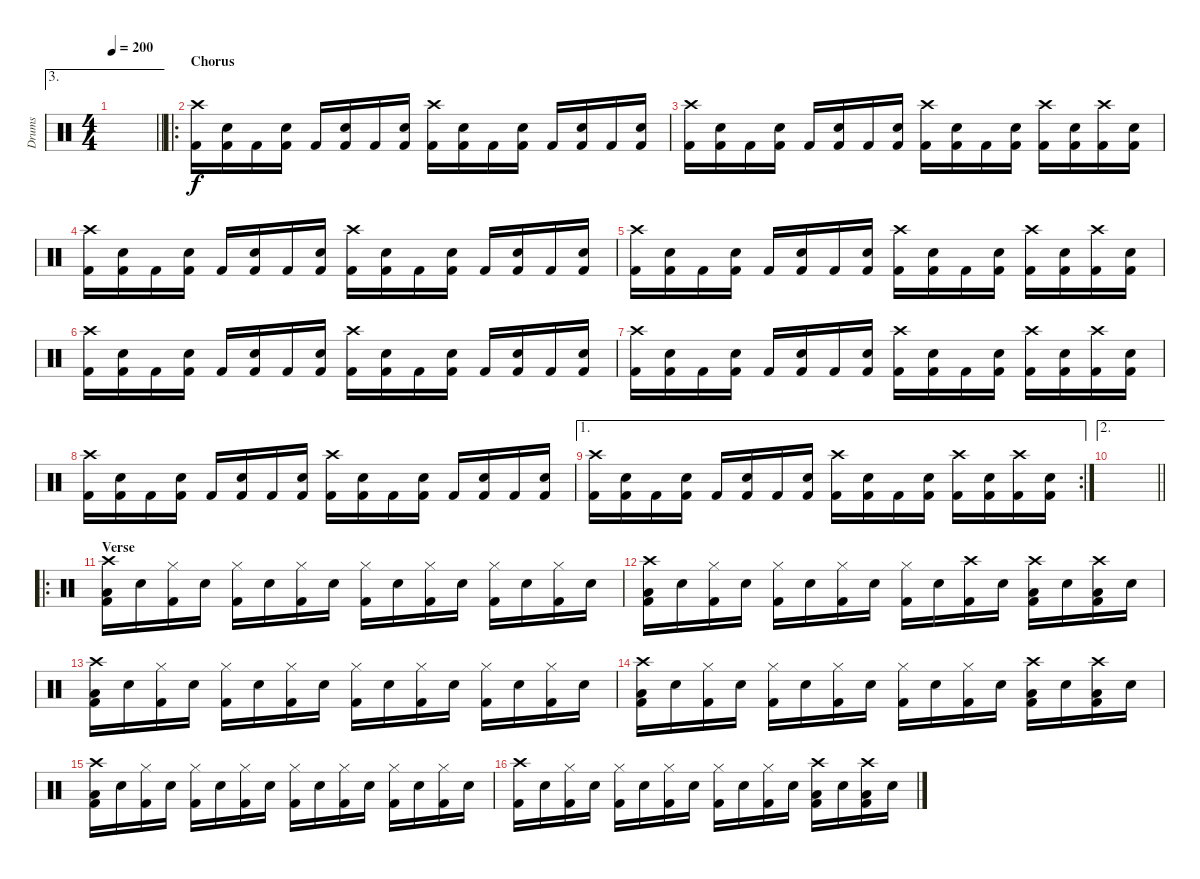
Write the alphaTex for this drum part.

\track ("Drums" "Drums") {instrument percussion}
\staff {score}
\articulation defaults
\ae 3
\ts (4 4)
\tempo 200
\clef neutral
\barLineRight lightlight
\ks c
|
\ro
\section ("" "Chorus")
("Crash high (hit)" "Kick (hit) 2").16 ("Snare (hit) 2" "Kick (hit) 2").16 "Kick (hit) 2".16 ("Snare (hit) 2" "Kick (hit) 2").16 "Kick (hit) 2".16 ("Snare (hit) 2" "Kick (hit) 2").16 "Kick (hit) 2".16 ("Snare (hit) 2" "Kick (hit) 2").16 ("Crash high (hit)" "Kick (hit) 2").16 ("Snare (hit) 2" "Kick (hit) 2").16 "Kick (hit) 2".16 ("Snare (hit) 2" "Kick (hit) 2").16 "Kick (hit) 2".16 ("Snare (hit) 2" "Kick (hit) 2").16 "Kick (hit) 2".16 ("Snare (hit) 2" "Kick (hit) 2").16 |
("Crash high (hit)" "Kick (hit) 2").16 ("Snare (hit) 2" "Kick (hit) 2").16 "Kick (hit) 2".16 ("Snare (hit) 2" "Kick (hit) 2").16 "Kick (hit) 2".16 ("Snare (hit) 2" "Kick (hit) 2").16 "Kick (hit) 2".16 ("Snare (hit) 2" "Kick (hit) 2").16 ("Crash high (hit)" "Kick (hit) 2").16 ("Snare (hit) 2" "Kick (hit) 2").16 "Kick (hit) 2".16 ("Snare (hit) 2" "Kick (hit) 2").16 ("Crash high (hit)" "Kick (hit) 2").16 ("Snare (hit) 2" "Kick (hit) 2").16 ("Crash high (hit)" "Kick (hit) 2").16 ("Snare (hit) 2" "Kick (hit) 2").16 |
("Crash high (hit)" "Kick (hit) 2").16 ("Snare (hit) 2" "Kick (hit) 2").16 "Kick (hit) 2".16 ("Snare (hit) 2" "Kick (hit) 2").16 "Kick (hit) 2".16 ("Snare (hit) 2" "Kick (hit) 2").16 "Kick (hit) 2".16 ("Snare (hit) 2" "Kick (hit) 2").16 ("Crash high (hit)" "Kick (hit) 2").16 ("Snare (hit) 2" "Kick (hit) 2").16 "Kick (hit) 2".16 ("Snare (hit) 2" "Kick (hit) 2").16 "Kick (hit) 2".16 ("Snare (hit) 2" "Kick (hit) 2").16 "Kick (hit) 2".16 ("Snare (hit) 2" "Kick (hit) 2").16 |
("Crash high (hit)" "Kick (hit) 2").16 ("Snare (hit) 2" "Kick (hit) 2").16 "Kick (hit) 2".16 ("Snare (hit) 2" "Kick (hit) 2").16 "Kick (hit) 2".16 ("Snare (hit) 2" "Kick (hit) 2").16 "Kick (hit) 2".16 ("Snare (hit) 2" "Kick (hit) 2").16 ("Crash high (hit)" "Kick (hit) 2").16 ("Snare (hit) 2" "Kick (hit) 2").16 "Kick (hit) 2".16 ("Snare (hit) 2" "Kick (hit) 2").16 ("Crash high (hit)" "Kick (hit) 2").16 ("Snare (hit) 2" "Kick (hit) 2").16 ("Crash high (hit)" "Kick (hit) 2").16 ("Snare (hit) 2" "Kick (hit) 2").16 |
("Crash high (hit)" "Kick (hit) 2").16 ("Snare (hit) 2" "Kick (hit) 2").16 "Kick (hit) 2".16 ("Snare (hit) 2" "Kick (hit) 2").16 "Kick (hit) 2".16 ("Snare (hit) 2" "Kick (hit) 2").16 "Kick (hit) 2".16 ("Snare (hit) 2" "Kick (hit) 2").16 ("Crash high (hit)" "Kick (hit) 2").16 ("Snare (hit) 2" "Kick (hit) 2").16 "Kick (hit) 2".16 ("Snare (hit) 2" "Kick (hit) 2").16 "Kick (hit) 2".16 ("Snare (hit) 2" "Kick (hit) 2").16 "Kick (hit) 2".16 ("Snare (hit) 2" "Kick (hit) 2").16 |
("Crash high (hit)" "Kick (hit) 2").16 ("Snare (hit) 2" "Kick (hit) 2").16 "Kick (hit) 2".16 ("Snare (hit) 2" "Kick (hit) 2").16 "Kick (hit) 2".16 ("Snare (hit) 2" "Kick (hit) 2").16 "Kick (hit) 2".16 ("Snare (hit) 2" "Kick (hit) 2").16 ("Crash high (hit)" "Kick (hit) 2").16 ("Snare (hit) 2" "Kick (hit) 2").16 "Kick (hit) 2".16 ("Snare (hit) 2" "Kick (hit) 2").16 ("Crash high (hit)" "Kick (hit) 2").16 ("Snare (hit) 2" "Kick (hit) 2").16 ("Crash high (hit)" "Kick (hit) 2").16 ("Snare (hit) 2" "Kick (hit) 2").16 |
("Crash high (hit)" "Kick (hit) 2").16 ("Snare (hit) 2" "Kick (hit) 2").16 "Kick (hit) 2".16 ("Snare (hit) 2" "Kick (hit) 2").16 "Kick (hit) 2".16 ("Snare (hit) 2" "Kick (hit) 2").16 "Kick (hit) 2".16 ("Snare (hit) 2" "Kick (hit) 2").16 ("Crash high (hit)" "Kick (hit) 2").16 ("Snare (hit) 2" "Kick (hit) 2").16 "Kick (hit) 2".16 ("Snare (hit) 2" "Kick (hit) 2").16 "Kick (hit) 2".16 ("Snare (hit) 2" "Kick (hit) 2").16 "Kick (hit) 2".16 ("Snare (hit) 2" "Kick (hit) 2").16 |
\ae 1
\rc 2
("Crash high (hit)" "Kick (hit) 2").16 ("Snare (hit) 2" "Kick (hit) 2").16 "Kick (hit) 2".16 ("Snare (hit) 2" "Kick (hit) 2").16 "Kick (hit) 2".16 ("Snare (hit) 2" "Kick (hit) 2").16 "Kick (hit) 2".16 ("Snare (hit) 2" "Kick (hit) 2").16 ("Crash high (hit)" "Kick (hit) 2").16 ("Snare (hit) 2" "Kick (hit) 2").16 "Kick (hit) 2".16 ("Snare (hit) 2" "Kick (hit) 2").16 ("Crash high (hit)" "Kick (hit) 2").16 ("Snare (hit) 2" "Kick (hit) 2").16 ("Crash high (hit)" "Kick (hit) 2").16 ("Snare (hit) 2" "Kick (hit) 2").16 |
\ae 2
\barLineRight lightlight
|
\ro
\section ("" "Verse")
("Crash high (hit)" "Low Floor Tom (hit)" "Kick (hit) 2").16 "Snare (hit) 2".16 ("Hi-Hat (closed)" "Kick (hit) 2").16 "Snare (hit) 2".16 ("Hi-Hat (closed)" "Kick (hit) 2").16 "Snare (hit) 2".16 ("Hi-Hat (closed)" "Kick (hit) 2").16 "Snare (hit) 2".16 ("Hi-Hat (closed)" "Kick (hit) 2").16 "Snare (hit) 2".16 ("Hi-Hat (closed)" "Kick (hit) 2").16 "Snare (hit) 2".16 ("Hi-Hat (closed)" "Kick (hit) 2").16 "Snare (hit) 2".16 ("Hi-Hat (closed)" "Kick (hit) 2").16 "Snare (hit) 2".16 |
("Crash high (hit)" "Low Floor Tom (hit)" "Kick (hit) 2").16 "Snare (hit) 2".16 ("Hi-Hat (closed)" "Kick (hit) 2").16 "Snare (hit) 2".16 ("Hi-Hat (closed)" "Kick (hit) 2").16 "Snare (hit) 2".16 ("Hi-Hat (closed)" "Kick (hit) 2").16 "Snare (hit) 2".16 ("Hi-Hat (closed)" "Kick (hit) 2").16 "Snare (hit) 2".16 ("Crash high (hit)" "Kick (hit) 2").16 "Snare (hit) 2".16 ("Crash high (hit)" "Low Floor Tom (hit)" "Kick (hit) 2").16 "Snare (hit) 2".16 ("Crash high (hit)" "Low Floor Tom (hit)" "Kick (hit) 2").16 "Snare (hit) 2".16 |
("Crash high (hit)" "Low Floor Tom (hit)" "Kick (hit) 2").16 "Snare (hit) 2".16 ("Hi-Hat (closed)" "Kick (hit) 2").16 "Snare (hit) 2".16 ("Hi-Hat (closed)" "Kick (hit) 2").16 "Snare (hit) 2".16 ("Hi-Hat (closed)" "Kick (hit) 2").16 "Snare (hit) 2".16 ("Hi-Hat (closed)" "Kick (hit) 2").16 "Snare (hit) 2".16 ("Hi-Hat (closed)" "Kick (hit) 2").16 "Snare (hit) 2".16 ("Hi-Hat (closed)" "Kick (hit) 2").16 "Snare (hit) 2".16 ("Hi-Hat (closed)" "Kick (hit) 2").16 "Snare (hit) 2".16 |
("Crash high (hit)" "Low Floor Tom (hit)" "Kick (hit) 2").16 "Snare (hit) 2".16 ("Hi-Hat (closed)" "Kick (hit) 2").16 "Snare (hit) 2".16 ("Hi-Hat (closed)" "Kick (hit) 2").16 "Snare (hit) 2".16 ("Hi-Hat (closed)" "Kick (hit) 2").16 "Snare (hit) 2".16 ("Hi-Hat (closed)" "Kick (hit) 2").16 "Snare (hit) 2".16 ("Hi-Hat (closed)" "Kick (hit) 2").16 "Snare (hit) 2".16 ("Crash high (hit)" "Low Floor Tom (hit)" "Kick (hit) 2").16 "Snare (hit) 2".16 ("Crash high (hit)" "Low Floor Tom (hit)" "Kick (hit) 2").16 "Snare (hit) 2".16 |
("Crash high (hit)" "Low Floor Tom (hit)" "Kick (hit) 2").16 "Snare (hit) 2".16 ("Hi-Hat (closed)" "Kick (hit) 2").16 "Snare (hit) 2".16 ("Hi-Hat (closed)" "Kick (hit) 2").16 "Snare (hit) 2".16 ("Hi-Hat (closed)" "Kick (hit) 2").16 "Snare (hit) 2".16 ("Hi-Hat (closed)" "Kick (hit) 2").16 "Snare (hit) 2".16 ("Hi-Hat (closed)" "Kick (hit) 2").16 "Snare (hit) 2".16 ("Hi-Hat (closed)" "Kick (hit) 2").16 "Snare (hit) 2".16 ("Hi-Hat (closed)" "Kick (hit) 2").16 "Snare (hit) 2".16 |
("Crash high (hit)" "Kick (hit) 2").16 "Snare (hit) 2".16 ("Hi-Hat (closed)" "Kick (hit) 2").16 "Snare (hit) 2".16 ("Hi-Hat (closed)" "Kick (hit) 2").16 "Snare (hit) 2".16 ("Hi-Hat (closed)" "Kick (hit) 2").16 "Snare (hit) 2".16 ("Hi-Hat (closed)" "Kick (hit) 2").16 "Snare (hit) 2".16 ("Hi-Hat (closed)" "Kick (hit) 2").16 "Snare (hit) 2".16 ("Crash high (hit)" "Low Floor Tom (hit)" "Kick (hit) 2").16 "Snare (hit) 2".16 ("Crash high (hit)" "Low Floor Tom (hit)" "Kick (hit) 2").16 "Snare (hit) 2".16
